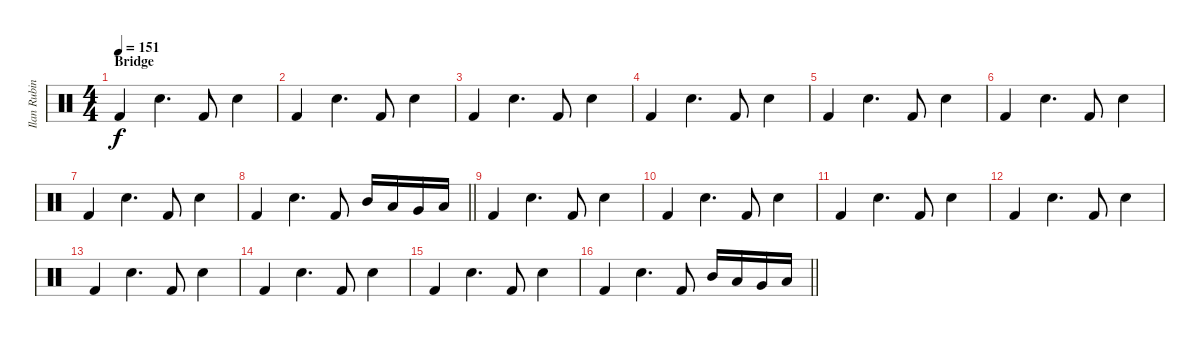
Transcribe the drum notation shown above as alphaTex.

\track ("Ilan Rubin [Drums]" "Ilan Rubin") {instrument percussion}
\staff {score}
\articulation defaults
\ts (4 4)
\section ("" "Bridge")
\tempo 151
\clef neutral
\ks c "Kick (hit) 2".4{dy f} "Snare (hit) 2".4{d} "Kick (hit) 2".8 "Snare (hit) 2".4
|
"Kick (hit) 2".4 "Snare (hit) 2".4{d} "Kick (hit) 2".8 "Snare (hit) 2".4 |
"Kick (hit) 2".4 "Snare (hit) 2".4{d} "Kick (hit) 2".8 "Snare (hit) 2".4 |
"Kick (hit) 2".4 "Snare (hit) 2".4{d} "Kick (hit) 2".8 "Snare (hit) 2".4 |
"Kick (hit) 2".4 "Snare (hit) 2".4{d} "Kick (hit) 2".8 "Snare (hit) 2".4 |
"Kick (hit) 2".4 "Snare (hit) 2".4{d} "Kick (hit) 2".8 "Snare (hit) 2".4 |
"Kick (hit) 2".4 "Snare (hit) 2".4{d} "Kick (hit) 2".8 "Snare (hit) 2".4 |
\barLineRight lightlight "Kick (hit) 2".4 "Snare (hit) 2".4{d} "Kick (hit) 2".8 "Mid Tom (hit)".16 "Low Tom (hit)".16 "Very Low Tom (hit)".16 "Low Floor Tom (hit)".16
|
"Kick (hit) 2".4 "Snare (hit) 2".4{d} "Kick (hit) 2".8 "Snare (hit) 2".4 |
"Kick (hit) 2".4 "Snare (hit) 2".4{d} "Kick (hit) 2".8 "Snare (hit) 2".4 |
"Kick (hit) 2".4 "Snare (hit) 2".4{d} "Kick (hit) 2".8 "Snare (hit) 2".4 |
"Kick (hit) 2".4 "Snare (hit) 2".4{d} "Kick (hit) 2".8 "Snare (hit) 2".4 |
"Kick (hit) 2".4 "Snare (hit) 2".4{d} "Kick (hit) 2".8 "Snare (hit) 2".4 |
"Kick (hit) 2".4 "Snare (hit) 2".4{d} "Kick (hit) 2".8 "Snare (hit) 2".4 |
"Kick (hit) 2".4 "Snare (hit) 2".4{d} "Kick (hit) 2".8 "Snare (hit) 2".4 |
\barLineRight lightlight "Kick (hit) 2".4 "Snare (hit) 2".4{d} "Kick (hit) 2".8 "Mid Tom (hit)".16 "Low Tom (hit)".16 "Very Low Tom (hit)".16 "Low Floor Tom (hit)".16
